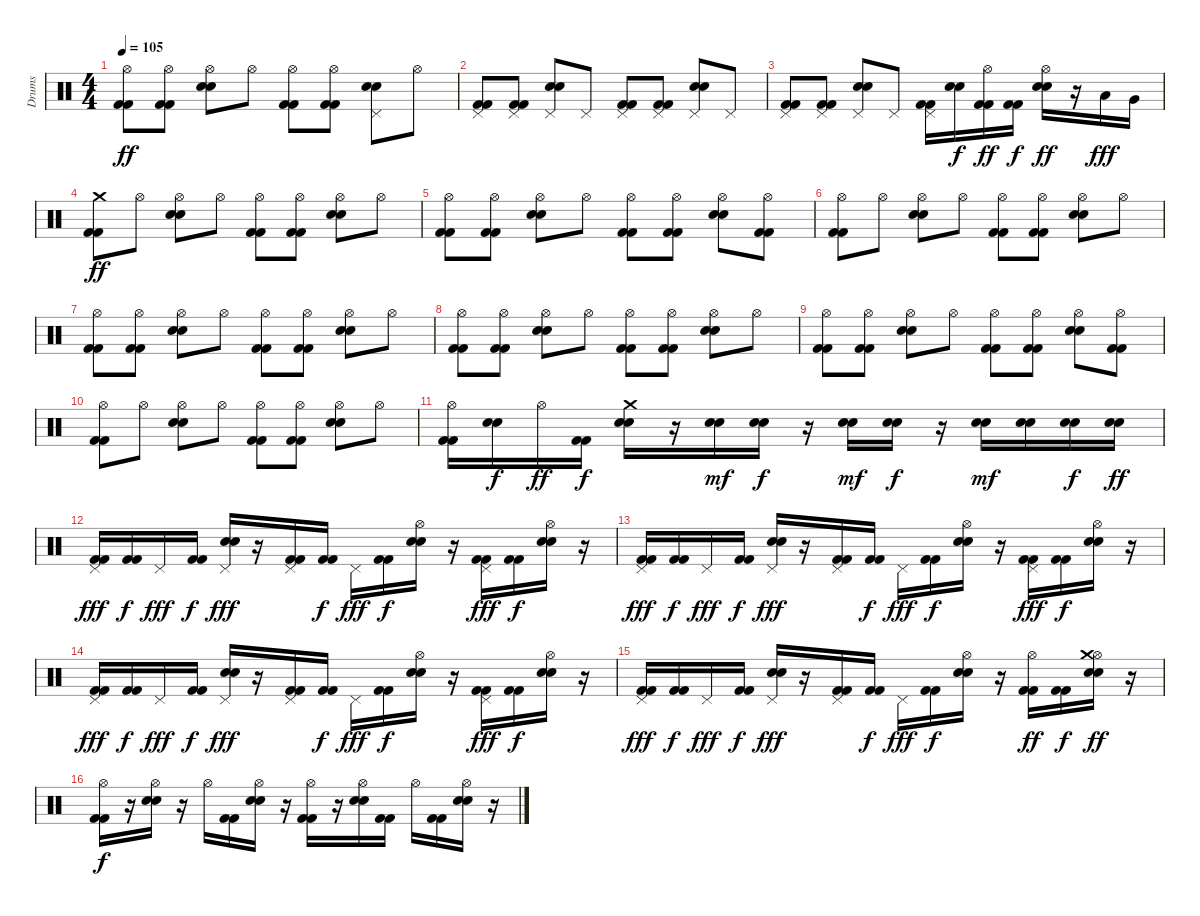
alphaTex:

\track ("Drums" "Drums") {instrument percussion}
\staff {score}
\articulation defaults
\ts (4 4)
\tempo 105
\clef neutral
\ks c
("Hi-Hat (open)" "Kick (hit) 2" "Kick (hit) 2").8{dy ff} ("Hi-Hat (open)" "Kick (hit) 2" "Kick (hit) 2").8 ("Hi-Hat (open)" "Electric Snare (hit)" "Snare (hit) 2").8 "Hi-Hat (open)".8 ("Hi-Hat (open)" "Kick (hit) 2" "Kick (hit) 2").8 ("Hi-Hat (open)" "Kick (hit) 2" "Kick (hit) 2").8 ("Pedal Hi-Hat (hit)" "Electric Snare (hit)" "Snare (hit) 2").8 "Hi-Hat (open)".8 |
("Pedal Hi-Hat (hit)" "Kick (hit) 2" "Kick (hit) 2").8 ("Pedal Hi-Hat (hit)" "Kick (hit) 2" "Kick (hit) 2").8 ("Pedal Hi-Hat (hit)" "Electric Snare (hit)" "Snare (hit) 2").8 "Pedal Hi-Hat (hit)".8 ("Pedal Hi-Hat (hit)" "Kick (hit) 2" "Kick (hit) 2").8 ("Pedal Hi-Hat (hit)" "Kick (hit) 2" "Kick (hit) 2").8 ("Pedal Hi-Hat (hit)" "Electric Snare (hit)" "Snare (hit) 2").8 "Pedal Hi-Hat (hit)".8 |
("Pedal Hi-Hat (hit)" "Kick (hit) 2" "Kick (hit) 2").8 ("Pedal Hi-Hat (hit)" "Kick (hit) 2" "Kick (hit) 2").8 ("Pedal Hi-Hat (hit)" "Electric Snare (hit)" "Snare (hit) 2").8 "Pedal Hi-Hat (hit)".8 ("Pedal Hi-Hat (hit)" "Kick (hit) 2" "Kick (hit) 2").16 ("Electric Snare (hit)" "Snare (hit) 2").16{dy f} ("Hi-Hat (open)" "Kick (hit) 2" "Kick (hit) 2").16{dy ff} ("Kick (hit) 2" "Kick (hit) 2").16{dy f} ("Hi-Hat (open)" "Electric Snare (hit)" "Snare (hit) 2").16{dy ff} r.16 "Low Tom (hit)".16{dy fff} "Very Low Tom (hit)".16 |
("Crash medium (hit)" "Kick (hit) 2" "Kick (hit) 2").8{dy ff} "Hi-Hat (open)".8 ("Hi-Hat (open)" "Electric Snare (hit)" "Snare (hit) 2").8 "Hi-Hat (open)".8 ("Hi-Hat (open)" "Kick (hit) 2" "Kick (hit) 2").8 ("Hi-Hat (open)" "Kick (hit) 2" "Kick (hit) 2").8 ("Hi-Hat (open)" "Electric Snare (hit)" "Snare (hit) 2").8 "Hi-Hat (open)".8 |
("Hi-Hat (open)" "Kick (hit) 2" "Kick (hit) 2").8 ("Hi-Hat (open)" "Kick (hit) 2" "Kick (hit) 2").8 ("Hi-Hat (open)" "Electric Snare (hit)" "Snare (hit) 2").8 "Hi-Hat (open)".8 ("Hi-Hat (open)" "Kick (hit) 2" "Kick (hit) 2").8 ("Hi-Hat (open)" "Kick (hit) 2" "Kick (hit) 2").8 ("Hi-Hat (open)" "Electric Snare (hit)" "Snare (hit) 2").8 ("Hi-Hat (open)" "Kick (hit) 2" "Kick (hit) 2").8 |
("Hi-Hat (open)" "Kick (hit) 2" "Kick (hit) 2").8 "Hi-Hat (open)".8 ("Hi-Hat (open)" "Electric Snare (hit)" "Snare (hit) 2").8 "Hi-Hat (open)".8 ("Hi-Hat (open)" "Kick (hit) 2" "Kick (hit) 2").8 ("Hi-Hat (open)" "Kick (hit) 2" "Kick (hit) 2").8 ("Hi-Hat (open)" "Electric Snare (hit)" "Snare (hit) 2").8 "Hi-Hat (open)".8 |
("Hi-Hat (open)" "Kick (hit) 2" "Kick (hit) 2").8 ("Hi-Hat (open)" "Kick (hit) 2" "Kick (hit) 2").8 ("Hi-Hat (open)" "Electric Snare (hit)" "Snare (hit) 2").8 "Hi-Hat (open)".8 ("Hi-Hat (open)" "Kick (hit) 2" "Kick (hit) 2").8 ("Hi-Hat (open)" "Kick (hit) 2" "Kick (hit) 2").8 ("Hi-Hat (open)" "Electric Snare (hit)" "Snare (hit) 2").8 "Hi-Hat (open)".8 |
("Hi-Hat (open)" "Kick (hit) 2" "Kick (hit) 2").8 ("Hi-Hat (open)" "Kick (hit) 2" "Kick (hit) 2").8 ("Hi-Hat (open)" "Electric Snare (hit)" "Snare (hit) 2").8 "Hi-Hat (open)".8 ("Hi-Hat (open)" "Kick (hit) 2" "Kick (hit) 2").8 ("Hi-Hat (open)" "Kick (hit) 2" "Kick (hit) 2").8 ("Hi-Hat (open)" "Electric Snare (hit)" "Snare (hit) 2").8 "Hi-Hat (open)".8 |
("Hi-Hat (open)" "Kick (hit) 2" "Kick (hit) 2").8 ("Hi-Hat (open)" "Kick (hit) 2" "Kick (hit) 2").8 ("Hi-Hat (open)" "Electric Snare (hit)" "Snare (hit) 2").8 "Hi-Hat (open)".8 ("Hi-Hat (open)" "Kick (hit) 2" "Kick (hit) 2").8 ("Hi-Hat (open)" "Kick (hit) 2" "Kick (hit) 2").8 ("Hi-Hat (open)" "Electric Snare (hit)" "Snare (hit) 2").8 ("Hi-Hat (open)" "Kick (hit) 2" "Kick (hit) 2").8 |
("Hi-Hat (open)" "Kick (hit) 2" "Kick (hit) 2").8 "Hi-Hat (open)".8 ("Hi-Hat (open)" "Electric Snare (hit)" "Snare (hit) 2").8 "Hi-Hat (open)".8 ("Hi-Hat (open)" "Kick (hit) 2" "Kick (hit) 2").8 ("Hi-Hat (open)" "Kick (hit) 2" "Kick (hit) 2").8 ("Hi-Hat (open)" "Electric Snare (hit)" "Snare (hit) 2").8 "Hi-Hat (open)".8 |
("Hi-Hat (open)" "Kick (hit) 2" "Kick (hit) 2").16 ("Electric Snare (hit)" "Snare (hit) 2").16{dy f} "Hi-Hat (open)".16{dy ff} ("Kick (hit) 2" "Kick (hit) 2").16{dy f} ("Crash medium (hit)" "Electric Snare (hit)" "Snare (hit) 2").16 r.16 ("Electric Snare (hit)" "Snare (hit) 2").16{dy mf} ("Electric Snare (hit)" "Snare (hit) 2").16{dy f} r.16 ("Electric Snare (hit)" "Snare (hit) 2").16{dy mf} ("Electric Snare (hit)" "Snare (hit) 2").16{dy f} r.16 ("Electric Snare (hit)" "Snare (hit) 2").16{dy mf} ("Electric Snare (hit)" "Snare (hit) 2").16 ("Electric Snare (hit)" "Snare (hit) 2").16{dy f} ("Electric Snare (hit)" "Snare (hit) 2").16{dy ff} |
("Pedal Hi-Hat (hit)" "Kick (hit) 2" "Kick (hit) 2").16{dy fff} ("Kick (hit) 2" "Kick (hit) 2").16{dy f} "Pedal Hi-Hat (hit)".16{dy fff} ("Kick (hit) 2" "Kick (hit) 2").16{dy f} ("Pedal Hi-Hat (hit)" "Electric Snare (hit)" "Snare (hit) 2").16{dy fff} r.16 ("Pedal Hi-Hat (hit)" "Kick (hit) 2" "Kick (hit) 2").16 ("Kick (hit) 2" "Kick (hit) 2").16{dy f} "Pedal Hi-Hat (hit)".16{dy fff} ("Kick (hit) 2" "Kick (hit) 2").16{dy f} ("Hi-Hat (open)" "Electric Snare (hit)" "Snare (hit) 2").16 r.16 ("Pedal Hi-Hat (hit)" "Kick (hit) 2" "Kick (hit) 2").16{dy fff} ("Kick (hit) 2" "Kick (hit) 2").16{dy f} ("Hi-Hat (open)" "Electric Snare (hit)" "Snare (hit) 2").16 r.16 |
("Pedal Hi-Hat (hit)" "Kick (hit) 2" "Kick (hit) 2").16{dy fff} ("Kick (hit) 2" "Kick (hit) 2").16{dy f} "Pedal Hi-Hat (hit)".16{dy fff} ("Kick (hit) 2" "Kick (hit) 2").16{dy f} ("Pedal Hi-Hat (hit)" "Electric Snare (hit)" "Snare (hit) 2").16{dy fff} r.16 ("Pedal Hi-Hat (hit)" "Kick (hit) 2" "Kick (hit) 2").16 ("Kick (hit) 2" "Kick (hit) 2").16{dy f} "Pedal Hi-Hat (hit)".16{dy fff} ("Kick (hit) 2" "Kick (hit) 2").16{dy f} ("Hi-Hat (open)" "Electric Snare (hit)" "Snare (hit) 2").16 r.16 ("Pedal Hi-Hat (hit)" "Kick (hit) 2" "Kick (hit) 2").16{dy fff} ("Kick (hit) 2" "Kick (hit) 2").16{dy f} ("Hi-Hat (open)" "Electric Snare (hit)" "Snare (hit) 2").16 r.16 |
("Pedal Hi-Hat (hit)" "Kick (hit) 2" "Kick (hit) 2").16{dy fff} ("Kick (hit) 2" "Kick (hit) 2").16{dy f} "Pedal Hi-Hat (hit)".16{dy fff} ("Kick (hit) 2" "Kick (hit) 2").16{dy f} ("Pedal Hi-Hat (hit)" "Electric Snare (hit)" "Snare (hit) 2").16{dy fff} r.16 ("Pedal Hi-Hat (hit)" "Kick (hit) 2" "Kick (hit) 2").16 ("Kick (hit) 2" "Kick (hit) 2").16{dy f} "Pedal Hi-Hat (hit)".16{dy fff} ("Kick (hit) 2" "Kick (hit) 2").16{dy f} ("Hi-Hat (open)" "Electric Snare (hit)" "Snare (hit) 2").16 r.16 ("Pedal Hi-Hat (hit)" "Kick (hit) 2" "Kick (hit) 2").16{dy fff} ("Kick (hit) 2" "Kick (hit) 2").16{dy f} ("Hi-Hat (open)" "Electric Snare (hit)" "Snare (hit) 2").16 r.16 |
("Pedal Hi-Hat (hit)" "Kick (hit) 2" "Kick (hit) 2").16{dy fff} ("Kick (hit) 2" "Kick (hit) 2").16{dy f} "Pedal Hi-Hat (hit)".16{dy fff} ("Kick (hit) 2" "Kick (hit) 2").16{dy f} ("Pedal Hi-Hat (hit)" "Electric Snare (hit)" "Snare (hit) 2").16{dy fff} r.16 ("Pedal Hi-Hat (hit)" "Kick (hit) 2" "Kick (hit) 2").16 ("Kick (hit) 2" "Kick (hit) 2").16{dy f} "Pedal Hi-Hat (hit)".16{dy fff} ("Kick (hit) 2" "Kick (hit) 2").16{dy f} ("Hi-Hat (open)" "Electric Snare (hit)" "Snare (hit) 2").16 r.16 ("Hi-Hat (open)" "Kick (hit) 2" "Kick (hit) 2").16{dy ff} ("Kick (hit) 2" "Kick (hit) 2").16{dy f} ("Hi-Hat (open)" "Crash medium (hit)" "Electric Snare (hit)" "Snare (hit) 2").16{dy ff} r.16 |
("Hi-Hat (open)" "Kick (hit) 2" "Kick (hit) 2").16{dy f} r.16 ("Hi-Hat (open)" "Electric Snare (hit)" "Snare (hit) 2").16 r.16 "Hi-Hat (open)".16 ("Kick (hit) 2" "Kick (hit) 2").16 ("Hi-Hat (open)" "Electric Snare (hit)" "Snare (hit) 2").16 r.16 ("Hi-Hat (open)" "Kick (hit) 2" "Kick (hit) 2").16 r.16 ("Hi-Hat (open)" "Electric Snare (hit)" "Snare (hit) 2").16 ("Kick (hit) 2" "Kick (hit) 2").16 "Hi-Hat (open)".16 ("Kick (hit) 2" "Kick (hit) 2").16 ("Hi-Hat (open)" "Electric Snare (hit)" "Snare (hit) 2").16 r.16
